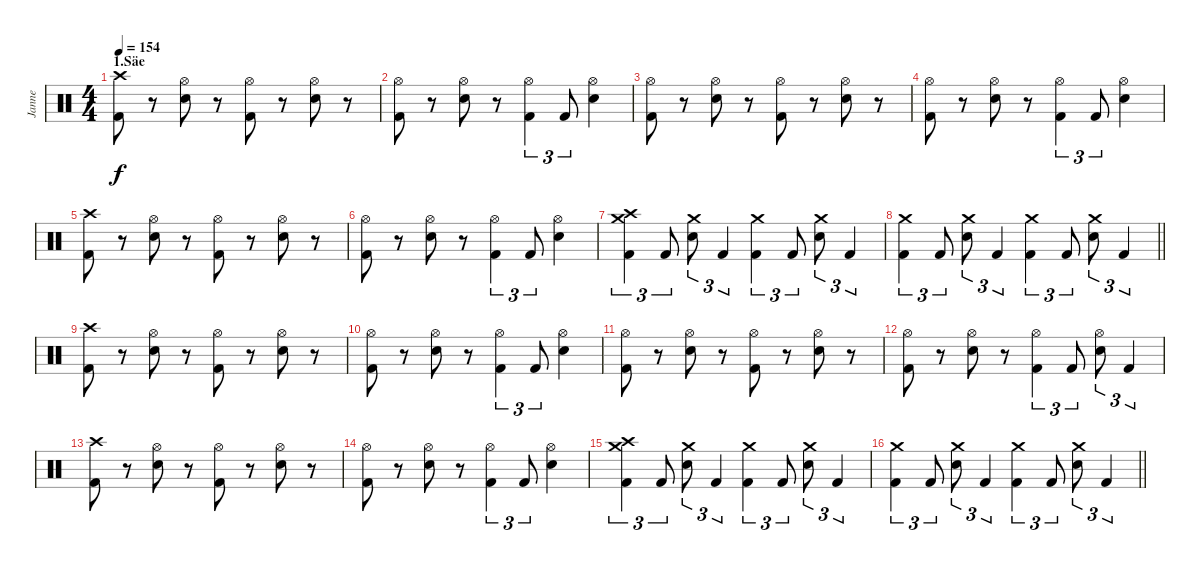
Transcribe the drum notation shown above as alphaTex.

\track ("Janne" "Janne") {instrument percussion}
\staff {score}
\articulation defaults
\ts (4 4)
\section ("" "1.Säe")
\tempo 154
\clef neutral
\ks c
("Crash high (hit)" "Kick (hit) 2").8{dy f} r.8 ("Hi-Hat (open)" "Electric Snare (hit)").8 r.8 ("Hi-Hat (open)" "Kick (hit) 2").8 r.8 ("Hi-Hat (open)" "Electric Snare (hit)").8 r.8 |
("Hi-Hat (open)" "Kick (hit) 2").8 r.8 ("Hi-Hat (open)" "Electric Snare (hit)").8 r.8 ("Hi-Hat (open)" "Kick (hit) 2").4{tu (3 2)} "Kick (hit) 2".8{tu (3 2)} ("Hi-Hat (open)" "Electric Snare (hit)").4 |
("Hi-Hat (open)" "Kick (hit) 2").8 r.8 ("Hi-Hat (open)" "Electric Snare (hit)").8 r.8 ("Hi-Hat (open)" "Kick (hit) 2").8 r.8 ("Hi-Hat (open)" "Electric Snare (hit)").8 r.8 |
("Hi-Hat (open)" "Kick (hit) 2").8 r.8 ("Hi-Hat (open)" "Electric Snare (hit)").8 r.8 ("Hi-Hat (open)" "Kick (hit) 2").4{tu (3 2)} "Kick (hit) 2".8{tu (3 2)} ("Hi-Hat (open)" "Electric Snare (hit)").4 |
("Crash high (hit)" "Kick (hit) 2").8 r.8 ("Hi-Hat (open)" "Electric Snare (hit)").8 r.8 ("Hi-Hat (open)" "Kick (hit) 2").8 r.8 ("Hi-Hat (open)" "Electric Snare (hit)").8 r.8 |
("Hi-Hat (open)" "Kick (hit) 2").8 r.8 ("Hi-Hat (open)" "Electric Snare (hit)").8 r.8 ("Hi-Hat (open)" "Kick (hit) 2").4{tu (3 2)} "Kick (hit) 2".8{tu (3 2)} ("Hi-Hat (open)" "Electric Snare (hit)").4 |
("Crash high (hit)" "Crash medium (hit)" "Kick (hit) 2").4{tu (3 2)} "Kick (hit) 2".8{tu (3 2)} ("Crash medium (hit)" "Electric Snare (hit)").8{tu (3 2)} "Kick (hit) 2".4{tu (3 2)} ("Crash medium (hit)" "Kick (hit) 2").4{tu (3 2)} "Kick (hit) 2".8{tu (3 2)} ("Crash medium (hit)" "Electric Snare (hit)").8{tu (3 2)} "Kick (hit) 2".4{tu (3 2)} |
\barLineRight lightlight
("Crash medium (hit)" "Kick (hit) 2").4{tu (3 2)} "Kick (hit) 2".8{tu (3 2)} ("Crash medium (hit)" "Electric Snare (hit)").8{tu (3 2)} "Kick (hit) 2".4{tu (3 2)} ("Crash medium (hit)" "Kick (hit) 2").4{tu (3 2)} "Kick (hit) 2".8{tu (3 2)} ("Crash medium (hit)" "Electric Snare (hit)").8{tu (3 2)} "Kick (hit) 2".4{tu (3 2)} |
("Crash high (hit)" "Kick (hit) 2").8 r.8 ("Hi-Hat (open)" "Electric Snare (hit)").8 r.8 ("Hi-Hat (open)" "Kick (hit) 2").8 r.8 ("Hi-Hat (open)" "Electric Snare (hit)").8 r.8 |
("Hi-Hat (open)" "Kick (hit) 2").8 r.8 ("Hi-Hat (open)" "Electric Snare (hit)").8 r.8 ("Hi-Hat (open)" "Kick (hit) 2").4{tu (3 2)} "Kick (hit) 2".8{tu (3 2)} ("Hi-Hat (open)" "Electric Snare (hit)").4 |
("Hi-Hat (open)" "Kick (hit) 2").8 r.8 ("Hi-Hat (open)" "Electric Snare (hit)").8 r.8 ("Hi-Hat (open)" "Kick (hit) 2").8 r.8 ("Hi-Hat (open)" "Electric Snare (hit)").8 r.8 |
("Hi-Hat (open)" "Kick (hit) 2").8 r.8 ("Hi-Hat (open)" "Electric Snare (hit)").8 r.8 ("Hi-Hat (open)" "Kick (hit) 2").4{tu (3 2)} "Kick (hit) 2".8{tu (3 2)} ("Hi-Hat (open)" "Electric Snare (hit)").8{tu (3 2)} "Kick (hit) 2".4{tu (3 2)} |
("Crash high (hit)" "Kick (hit) 2").8 r.8 ("Hi-Hat (open)" "Electric Snare (hit)").8 r.8 ("Hi-Hat (open)" "Kick (hit) 2").8 r.8 ("Hi-Hat (open)" "Electric Snare (hit)").8 r.8 |
("Hi-Hat (open)" "Kick (hit) 2").8 r.8 ("Hi-Hat (open)" "Electric Snare (hit)").8 r.8 ("Hi-Hat (open)" "Kick (hit) 2").4{tu (3 2)} "Kick (hit) 2".8{tu (3 2)} ("Hi-Hat (open)" "Electric Snare (hit)").4 |
("Crash high (hit)" "Crash medium (hit)" "Kick (hit) 2").4{tu (3 2)} "Kick (hit) 2".8{tu (3 2)} ("Crash medium (hit)" "Electric Snare (hit)").8{tu (3 2)} "Kick (hit) 2".4{tu (3 2)} ("Crash medium (hit)" "Kick (hit) 2").4{tu (3 2)} "Kick (hit) 2".8{tu (3 2)} ("Crash medium (hit)" "Electric Snare (hit)").8{tu (3 2)} "Kick (hit) 2".4{tu (3 2)} |
\barLineRight lightlight
("Crash medium (hit)" "Kick (hit) 2").4{tu (3 2)} "Kick (hit) 2".8{tu (3 2)} ("Crash medium (hit)" "Electric Snare (hit)").8{tu (3 2)} "Kick (hit) 2".4{tu (3 2)} ("Crash medium (hit)" "Kick (hit) 2").4{tu (3 2)} "Kick (hit) 2".8{tu (3 2)} ("Crash medium (hit)" "Electric Snare (hit)").8{tu (3 2)} "Kick (hit) 2".4{tu (3 2)}
